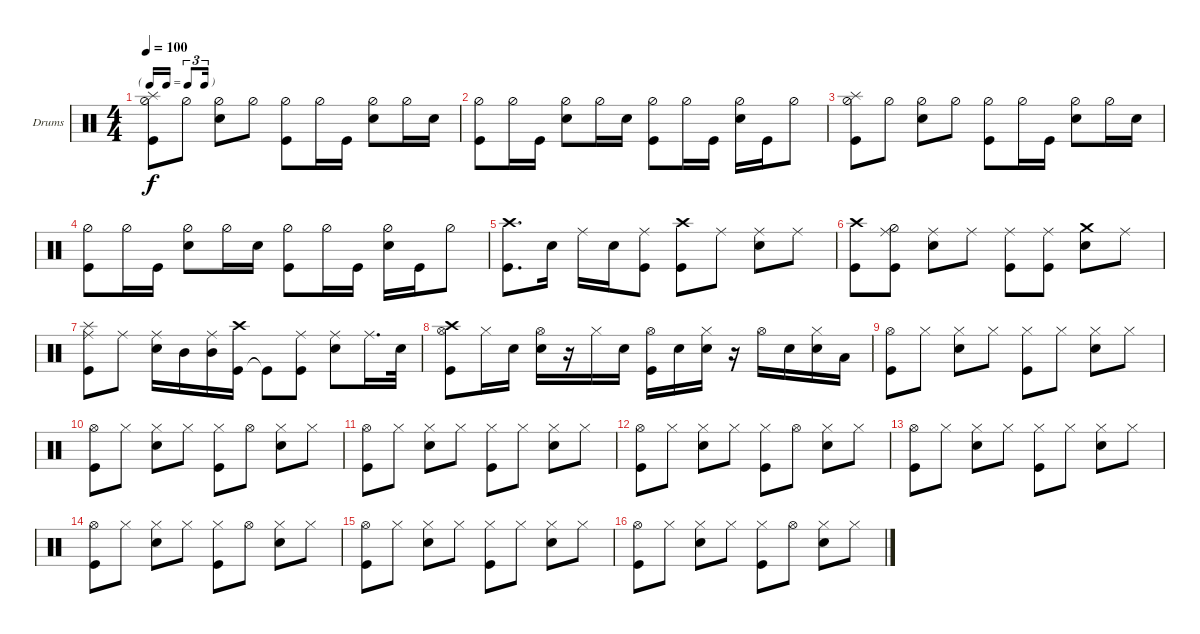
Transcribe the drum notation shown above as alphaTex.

\bracketExtendMode groupsimilarinstruments
\firstSystemTrackNameOrientation horizontal
\otherSystemsTrackNameOrientation horizontal
\track ("Drumkit" "Drums") {instrument percussion}
\staff {score}
\articulation defaults
\ts (4 4)
\tf triplet16th
\tempo 100
\clef neutral
\ks c
("Kick (hit)" "Hi-Hat (half)" "Splash (hit)").8{dy f} "Hi-Hat (half)".8 ("Snare (hit) 2" "Hi-Hat (half)").8 "Hi-Hat (half)".8 ("Kick (hit)" "Hi-Hat (half)").8 "Hi-Hat (half)".16 "Kick (hit)".16 ("Snare (hit) 2" "Hi-Hat (half)").8 "Hi-Hat (half)".16 "Snare (hit) 2".16 |
("Hi-Hat (half)" "Kick (hit)").8 "Hi-Hat (half)".16 "Kick (hit)".16 ("Hi-Hat (half)" "Snare (hit) 2").8 "Hi-Hat (half)".16 "Snare (hit) 2".16 ("Hi-Hat (half)" "Kick (hit)").8 "Hi-Hat (half)".16 "Kick (hit)".16 ("Hi-Hat (half)" "Snare (hit) 2").16 "Kick (hit)".16 "Hi-Hat (half)".8 |
("Kick (hit)" "Hi-Hat (half)" "Splash (hit)").8 "Hi-Hat (half)".8 ("Snare (hit) 2" "Hi-Hat (half)").8 "Hi-Hat (half)".8 ("Kick (hit)" "Hi-Hat (half)").8 "Hi-Hat (half)".16 "Kick (hit)".16 ("Snare (hit) 2" "Hi-Hat (half)").8 "Hi-Hat (half)".16 "Snare (hit) 2".16 |
("Hi-Hat (half)" "Kick (hit)").8 "Hi-Hat (half)".16 "Kick (hit)".16 ("Hi-Hat (half)" "Snare (hit) 2").8 "Hi-Hat (half)".16 "Snare (hit) 2".16 ("Hi-Hat (half)" "Kick (hit)").8 "Hi-Hat (half)".16 "Kick (hit)".16 ("Hi-Hat (half)" "Snare (hit) 2").16 "Kick (hit)".16 "Hi-Hat (half)".8 |
("Kick (hit)" "Crash high (hit)").8{d} "Snare (hit) 2".16 "Ride (middle)".16 "Snare (hit) 2".16 ("Kick (hit)" "Ride (middle)").8 ("Kick (hit)" "Crash high (hit)").8 "Ride (middle)".8 ("Snare (hit) 2" "Ride (middle)").8 "Ride (middle)".8 |
("Kick (hit)" "Crash high (hit)").8 ("Kick (hit)" "Hi-Hat (half)" "Ride (middle)").8 ("Snare (hit) 2" "Ride (middle)").8 "Ride (middle)".8 ("Ride (middle)" "Kick (hit)").8 ("Ride (middle)" "Kick (hit)").8 ("Snare (hit) 2" "Crash medium (hit)").8 "Ride (middle)".8 |
("Kick (hit)" "Ride (middle)" "Splash (hit)").8 "Ride (middle)".8 ("Ride (middle)" "Snare (hit) 2").16 "Mid Tom (hit)".16 ("Ride (middle)" "Mid Tom (hit)").16 ("Kick (hit)" "Crash high (hit)").16 "Kick (hit)"{t}.8 ("Ride (middle)" "Kick (hit)").8 ("Ride (middle)" "Snare (hit) 2").8 "Ride (middle)".16{d} "Snare (hit) 2".32 |
("Kick (hit)" "Crash high (hit)" "Hi-Hat (open)").8 "Hi-Hat (closed)".16 "Snare (hit) 2".16 ("Snare (hit) 2" "Hi-Hat (open)").16 r.16 "Hi-Hat (closed)".16 "Snare (hit) 2".16 ("Hi-Hat (open)" "Kick (hit)").16 "Snare (hit) 2".16 ("Snare (hit) 2" "Hi-Hat (closed)").16 r.16 "Hi-Hat (open)".16 "Snare (hit) 2".16 ("Snare (hit) 2" "Hi-Hat (closed)").16 "Low Tom (hit)".16 |
("Kick (hit)" "Hi-Hat (open)").8 "Hi-Hat (closed)".8 ("Hi-Hat (closed)" "Snare (hit) 2").8 "Hi-Hat (closed)".8 ("Hi-Hat (closed)" "Kick (hit)").8 "Hi-Hat (closed)".8 ("Hi-Hat (closed)" "Snare (hit) 2").8 "Hi-Hat (closed)".8 |
("Hi-Hat (open)" "Kick (hit)").8 "Hi-Hat (closed)".8 ("Hi-Hat (closed)" "Snare (hit) 2").8 "Hi-Hat (closed)".8 ("Hi-Hat (closed)" "Kick (hit)").8 "Hi-Hat (open)".8 ("Hi-Hat (closed)" "Snare (hit) 2").8 "Hi-Hat (closed)".8 |
("Kick (hit)" "Hi-Hat (open)").8 "Hi-Hat (closed)".8 ("Hi-Hat (closed)" "Snare (hit) 2").8 "Hi-Hat (closed)".8 ("Hi-Hat (closed)" "Kick (hit)").8 "Hi-Hat (closed)".8 ("Hi-Hat (closed)" "Snare (hit) 2").8 "Hi-Hat (closed)".8 |
("Hi-Hat (open)" "Kick (hit)").8 "Hi-Hat (closed)".8 ("Hi-Hat (closed)" "Snare (hit) 2").8 "Hi-Hat (closed)".8 ("Hi-Hat (closed)" "Kick (hit)").8 "Hi-Hat (open)".8 ("Hi-Hat (closed)" "Snare (hit) 2").8 "Hi-Hat (closed)".8 |
("Kick (hit)" "Hi-Hat (open)").8 "Hi-Hat (closed)".8 ("Hi-Hat (closed)" "Snare (hit) 2").8 "Hi-Hat (closed)".8 ("Hi-Hat (closed)" "Kick (hit)").8 "Hi-Hat (closed)".8 ("Hi-Hat (closed)" "Snare (hit) 2").8 "Hi-Hat (closed)".8 |
("Hi-Hat (open)" "Kick (hit)").8 "Hi-Hat (closed)".8 ("Hi-Hat (closed)" "Snare (hit) 2").8 "Hi-Hat (closed)".8 ("Hi-Hat (closed)" "Kick (hit)").8 "Hi-Hat (open)".8 ("Hi-Hat (closed)" "Snare (hit) 2").8 "Hi-Hat (closed)".8 |
("Kick (hit)" "Hi-Hat (open)").8 "Hi-Hat (closed)".8 ("Hi-Hat (closed)" "Snare (hit) 2").8 "Hi-Hat (closed)".8 ("Hi-Hat (closed)" "Kick (hit)").8 "Hi-Hat (closed)".8 ("Hi-Hat (closed)" "Snare (hit) 2").8 "Hi-Hat (closed)".8 |
("Hi-Hat (open)" "Kick (hit)").8 "Hi-Hat (closed)".8 ("Hi-Hat (closed)" "Snare (hit) 2").8 "Hi-Hat (closed)".8 ("Hi-Hat (closed)" "Kick (hit)").8 "Hi-Hat (open)".8 ("Hi-Hat (closed)" "Snare (hit) 2").8 "Hi-Hat (closed)".8
